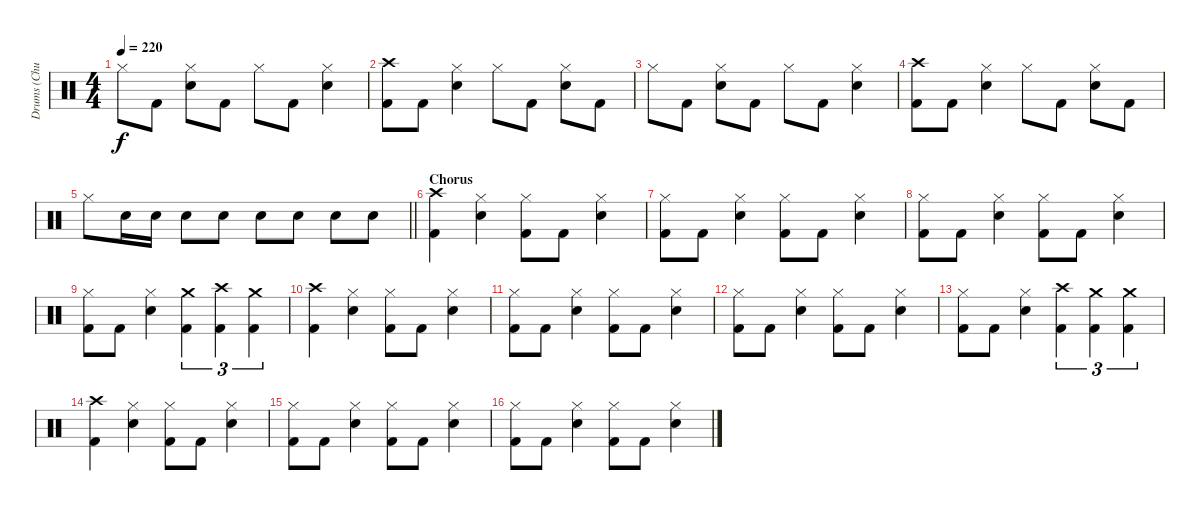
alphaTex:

\track ("Drums (Chuck Behler)" "Drums (Chu") {instrument percussion}
\staff {score}
\articulation defaults
\ts (4 4)
\tempo 220
\clef neutral
\ks c "Hi-Hat (closed)".8{dy f} "Kick (hit) 2".8
("Hi-Hat (closed)" "Snare (hit) 2").8 "Kick (hit) 2".8 "Hi-Hat (closed)".8 "Kick (hit) 2".8 ("Hi-Hat (closed)" "Snare (hit) 2").4 |
("Crash high (hit)" "Kick (hit) 2").8 "Kick (hit) 2".8 ("Hi-Hat (closed)" "Snare (hit) 2").4 "Hi-Hat (closed)".8 "Kick (hit) 2".8 ("Hi-Hat (closed)" "Snare (hit) 2").8 "Kick (hit) 2".8 |
"Hi-Hat (closed)".8 "Kick (hit) 2".8 ("Hi-Hat (closed)" "Snare (hit) 2").8 "Kick (hit) 2".8 "Hi-Hat (closed)".8 "Kick (hit) 2".8 ("Hi-Hat (closed)" "Snare (hit) 2").4 |
("Crash high (hit)" "Kick (hit) 2").8 "Kick (hit) 2".8 ("Hi-Hat (closed)" "Snare (hit) 2").4 "Hi-Hat (closed)".8 "Kick (hit) 2".8 ("Hi-Hat (closed)" "Snare (hit) 2").8 "Kick (hit) 2".8 |
\barLineRight lightlight "Hi-Hat (closed)".8 "Snare (hit) 2".16 "Snare (hit) 2".16 "Snare (hit) 2".8 "Snare (hit) 2".8 "Snare (hit) 2".8 "Snare (hit) 2".8 "Snare (hit) 2".8 "Snare (hit) 2".8
|
\section ("" "Chorus")
("Crash high (hit)" "Kick (hit) 2").4 ("Hi-Hat (closed)" "Snare (hit) 2").4 ("Hi-Hat (closed)" "Kick (hit) 2").8 "Kick (hit) 2".8 ("Hi-Hat (closed)" "Snare (hit) 2").4 |
("Hi-Hat (closed)" "Kick (hit) 2").8 "Kick (hit) 2".8 ("Hi-Hat (closed)" "Snare (hit) 2").4 ("Hi-Hat (closed)" "Kick (hit) 2").8 "Kick (hit) 2".8 ("Hi-Hat (closed)" "Snare (hit) 2").4 |
("Hi-Hat (closed)" "Kick (hit) 2").8 "Kick (hit) 2".8 ("Hi-Hat (closed)" "Snare (hit) 2").4 ("Hi-Hat (closed)" "Kick (hit) 2").8 "Kick (hit) 2".8 ("Hi-Hat (closed)" "Snare (hit) 2").4 |
("Hi-Hat (closed)" "Kick (hit) 2").8 "Kick (hit) 2".8 ("Hi-Hat (closed)" "Snare (hit) 2").4 ("Crash medium (hit)" "Kick (hit) 2").4{tu (3 2)} ("Crash high (hit)" "Kick (hit) 2").4{tu (3 2)} ("Crash medium (hit)" "Kick (hit) 2").4{tu (3 2)} |
("Crash high (hit)" "Kick (hit) 2").4 ("Hi-Hat (closed)" "Snare (hit) 2").4 ("Hi-Hat (closed)" "Kick (hit) 2").8 "Kick (hit) 2".8 ("Hi-Hat (closed)" "Snare (hit) 2").4 |
("Hi-Hat (closed)" "Kick (hit) 2").8 "Kick (hit) 2".8 ("Hi-Hat (closed)" "Snare (hit) 2").4 ("Hi-Hat (closed)" "Kick (hit) 2").8 "Kick (hit) 2".8 ("Hi-Hat (closed)" "Snare (hit) 2").4 |
("Hi-Hat (closed)" "Kick (hit) 2").8 "Kick (hit) 2".8 ("Hi-Hat (closed)" "Snare (hit) 2").4 ("Hi-Hat (closed)" "Kick (hit) 2").8 "Kick (hit) 2".8 ("Hi-Hat (closed)" "Snare (hit) 2").4 |
("Hi-Hat (closed)" "Kick (hit) 2").8 "Kick (hit) 2".8 ("Hi-Hat (closed)" "Snare (hit) 2").4 ("Crash high (hit)" "Kick (hit) 2").4{tu (3 2)} ("Crash medium (hit)" "Kick (hit) 2").4{tu (3 2)} ("Crash medium (hit)" "Kick (hit) 2").4{tu (3 2)} |
("Crash high (hit)" "Kick (hit) 2").4 ("Hi-Hat (closed)" "Snare (hit) 2").4 ("Hi-Hat (closed)" "Kick (hit) 2").8 "Kick (hit) 2".8 ("Hi-Hat (closed)" "Snare (hit) 2").4 |
("Hi-Hat (closed)" "Kick (hit) 2").8 "Kick (hit) 2".8 ("Hi-Hat (closed)" "Snare (hit) 2").4 ("Hi-Hat (closed)" "Kick (hit) 2").8 "Kick (hit) 2".8 ("Hi-Hat (closed)" "Snare (hit) 2").4 |
("Hi-Hat (closed)" "Kick (hit) 2").8 "Kick (hit) 2".8 ("Hi-Hat (closed)" "Snare (hit) 2").4 ("Hi-Hat (closed)" "Kick (hit) 2").8 "Kick (hit) 2".8 ("Hi-Hat (closed)" "Snare (hit) 2").4
